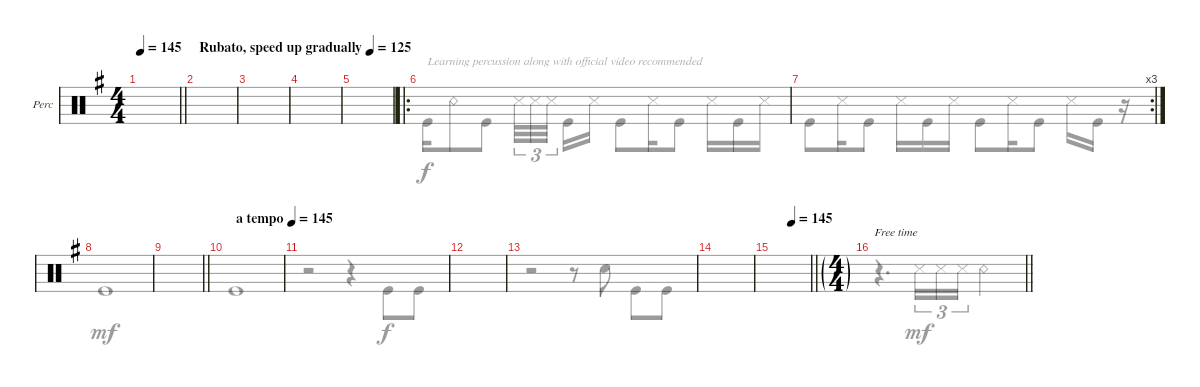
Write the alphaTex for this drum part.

\defaultSystemsLayout 4
\bracketExtendMode groupsimilarinstruments
\firstSystemTrackNameOrientation horizontal
\otherSystemsTrackNameOrientation horizontal
\track ("Percussion" "Perc") {instrument percussion}
\staff {score}
\articulation defaults
\voice
\ts (4 4)
\scale
0.350865
\tempo 145
\accidentals auto
\clef neutral
\ottava regular
\simile none
\barLineRight lightlight
\ks eminor
|
\scale
0.553497
\tempo (125 "Rubato, speed up gradually")
\scale
0.333333 |
\scale
0.446831
\scale
0.333333 |
\scale
0.52165
\scale
0.333333 |
\scale
0.478322
\scale
0.333333 |
\ro
\scale
0.598147 |
\rc 3
\scale
0.401386 |
\scale
0.439383
\scale
0.333333 |
\scale
0.194039
\scale
0.333333
\barLineRight lightlight
|
\scale
0.548585
\tempo (145 "a tempo")
\scale
0.333333 |
\scale
0.453826 |
\scale
0.543269
\scale
0.333333 |
\scale
0.457075
\scale
0.333333 |
\scale
0.762084
\scale
0.333333 |
\scale
0.30232
\tempo (145 0.5)
\scale
0.333333
\barLineRight lightlight
|
\ft
\scale
0.334462
\tempo (110 hide)
\voice
\clef neutral
\ottava regular
\simile none
\barLineRight lightlight
\ks eminor
r.4{d dy mf} "Snare (side stick) 3".16{tu (3 2)} "Snare (side stick) 3".16{tu (3 2)} "Snare (side stick) 3".16{tu (3 2)} "Snare (rim shot)".2{fermata (medium 0.5)} |
\scale
0.333333 |
\scale
0.333333 |
\scale
0.333333 |
\scale
0.333333 |
"Kick (hit)".16{txt "Learning percussion along with official video recommended" dy f} "Snare (rim shot)".8 "Kick (hit)".8 "Snare (side stick) 3".32{tu (3 2)} "Snare (side stick) 3".32{tu (3 2)} "Snare (side stick) 3".32{tu (3 2)} "Kick (hit)".16 "Snare (side stick) 3".16 "Kick (hit)".8 "Snare (side stick) 3".16 "Kick (hit)".8 "Snare (side stick) 3".16 "Kick (hit)".16 "Snare (side stick) 3".16 |
"Kick (hit)".8 "Snare (side stick) 3".16 "Kick (hit)".8 "Snare (side stick) 3".16 "Kick (hit)".16 "Snare (side stick) 3".16 "Kick (hit)".8 "Snare (side stick) 3".16 "Kick (hit)".8 "Snare (side stick) 3".16 "Kick (hit)".16 r.16 |
\scale
0.333333 "Kick (hit)".1{dy mf} |
\scale
0.333333
\barLineRight lightlight
|
\scale
0.333333 "Kick (hit)".1 |
r.2 r.4 "Kick (hit)".8{dy f} "Kick (hit)".8 |
\scale
0.333333 |
\scale
0.333333 r.2 r.8 "Snare (hit) 2".8 "Kick (hit)".8 "Kick (hit)".8 |
\scale
0.333333 |
\scale
0.333333
\barLineRight lightlight
|
